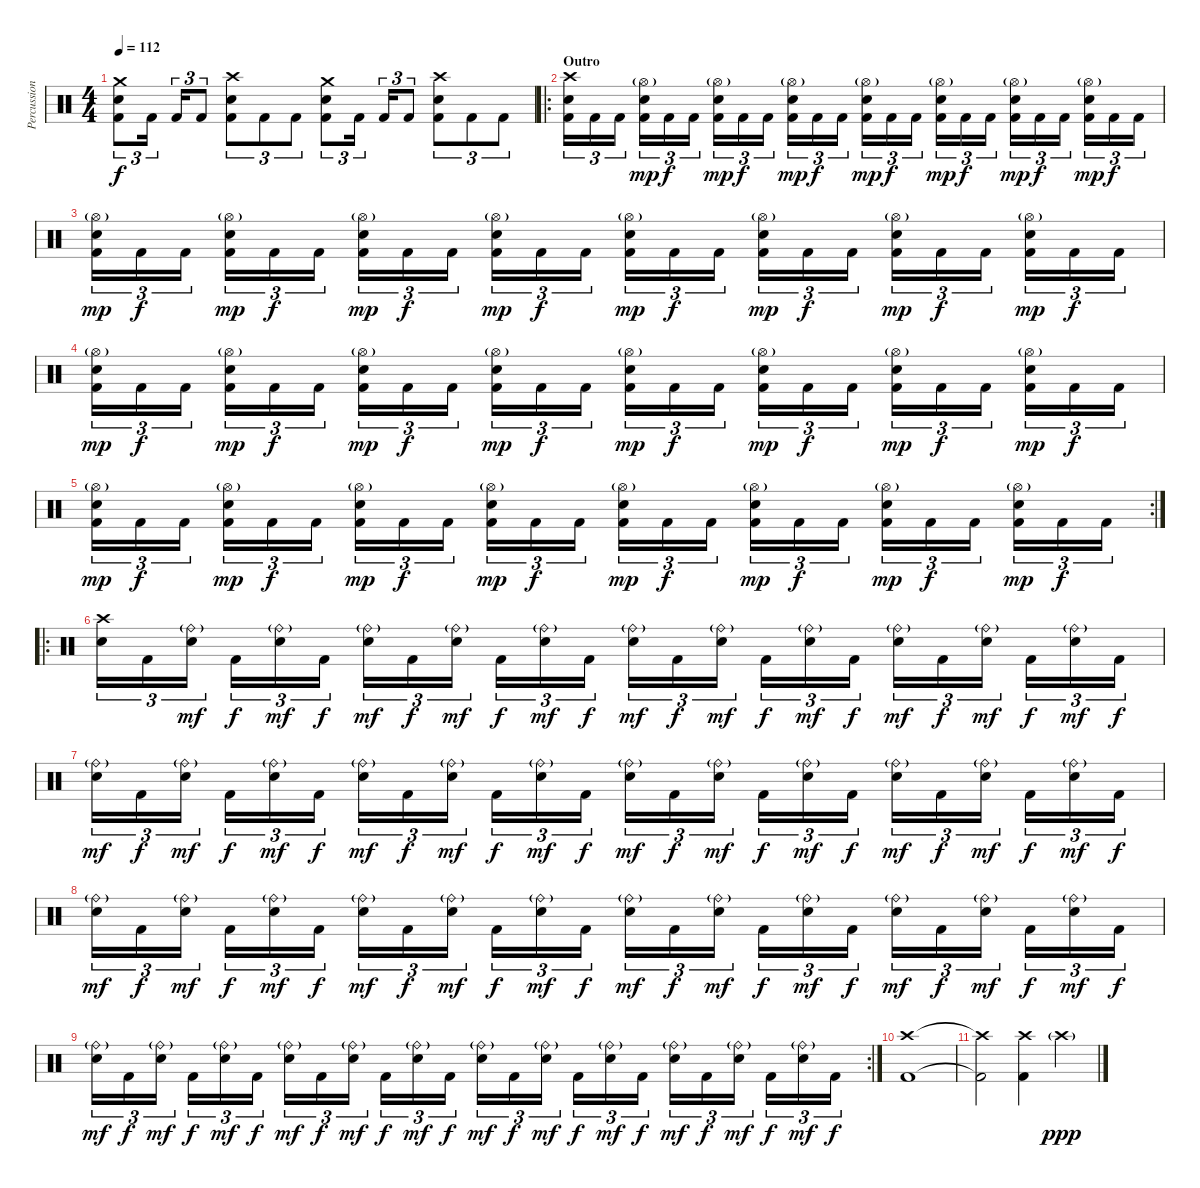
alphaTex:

\track ("Percussion" "Percussion") {instrument percussion}
\staff {score}
\articulation defaults
\ts (4 4)
\tempo 112
\clef neutral
\ks c
("Crash medium (hit)" "Electric Snare (hit)" "Kick (hit) 2").8{tu (3 2) dy f} "Kick (hit) 2".16{tu (3 2)} "Kick (hit) 2".16{tu (3 2)} "Kick (hit) 2".8{tu (3 2)} ("Crash high (hit)" "Electric Snare (hit)" "Kick (hit) 2").8{tu (3 2)} "Kick (hit) 2".8{tu (3 2)} "Kick (hit) 2".8{tu (3 2)} ("Crash medium (hit)" "Electric Snare (hit)" "Kick (hit) 2").8{tu (3 2)} "Kick (hit) 2".16{tu (3 2)} "Kick (hit) 2".16{tu (3 2)} "Kick (hit) 2".8{tu (3 2)} ("Crash high (hit)" "Electric Snare (hit)" "Kick (hit) 2").8{tu (3 2)} "Kick (hit) 2".8{tu (3 2)} "Kick (hit) 2".8{tu (3 2)} |
\ro
\section ("" "Outro")
("Crash high (hit)" "Electric Snare (hit)" "Kick (hit) 2").16{tu (3 2)} "Kick (hit) 2".16{tu (3 2)} "Kick (hit) 2".16{tu (3 2)} ("Hi-Hat (open)"{g} "Electric Snare (hit)" "Kick (hit) 2").16{tu (3 2) dy mp} "Kick (hit) 2".16{tu (3 2) dy f} "Kick (hit) 2".16{tu (3 2)} ("Hi-Hat (open)"{g} "Electric Snare (hit)" "Kick (hit) 2").16{tu (3 2) dy mp} "Kick (hit) 2".16{tu (3 2) dy f} "Kick (hit) 2".16{tu (3 2)} ("Hi-Hat (open)"{g} "Electric Snare (hit)" "Kick (hit) 2").16{tu (3 2) dy mp} "Kick (hit) 2".16{tu (3 2) dy f} "Kick (hit) 2".16{tu (3 2)} ("Hi-Hat (open)"{g} "Electric Snare (hit)" "Kick (hit) 2").16{tu (3 2) dy mp} "Kick (hit) 2".16{tu (3 2) dy f} "Kick (hit) 2".16{tu (3 2)} ("Hi-Hat (open)"{g} "Electric Snare (hit)" "Kick (hit) 2").16{tu (3 2) dy mp} "Kick (hit) 2".16{tu (3 2) dy f} "Kick (hit) 2".16{tu (3 2)} ("Hi-Hat (open)"{g} "Electric Snare (hit)" "Kick (hit) 2").16{tu (3 2) dy mp} "Kick (hit) 2".16{tu (3 2) dy f} "Kick (hit) 2".16{tu (3 2)} ("Hi-Hat (open)"{g} "Electric Snare (hit)" "Kick (hit) 2").16{tu (3 2) dy mp} "Kick (hit) 2".16{tu (3 2) dy f} "Kick (hit) 2".16{tu (3 2)} |
("Hi-Hat (open)"{g} "Electric Snare (hit)" "Kick (hit) 2").16{tu (3 2) dy mp} "Kick (hit) 2".16{tu (3 2) dy f} "Kick (hit) 2".16{tu (3 2)} ("Hi-Hat (open)"{g} "Electric Snare (hit)" "Kick (hit) 2").16{tu (3 2) dy mp} "Kick (hit) 2".16{tu (3 2) dy f} "Kick (hit) 2".16{tu (3 2)} ("Hi-Hat (open)"{g} "Electric Snare (hit)" "Kick (hit) 2").16{tu (3 2) dy mp} "Kick (hit) 2".16{tu (3 2) dy f} "Kick (hit) 2".16{tu (3 2)} ("Hi-Hat (open)"{g} "Electric Snare (hit)" "Kick (hit) 2").16{tu (3 2) dy mp} "Kick (hit) 2".16{tu (3 2) dy f} "Kick (hit) 2".16{tu (3 2)} ("Hi-Hat (open)"{g} "Electric Snare (hit)" "Kick (hit) 2").16{tu (3 2) dy mp} "Kick (hit) 2".16{tu (3 2) dy f} "Kick (hit) 2".16{tu (3 2)} ("Hi-Hat (open)"{g} "Electric Snare (hit)" "Kick (hit) 2").16{tu (3 2) dy mp} "Kick (hit) 2".16{tu (3 2) dy f} "Kick (hit) 2".16{tu (3 2)} ("Hi-Hat (open)"{g} "Electric Snare (hit)" "Kick (hit) 2").16{tu (3 2) dy mp} "Kick (hit) 2".16{tu (3 2) dy f} "Kick (hit) 2".16{tu (3 2)} ("Hi-Hat (open)"{g} "Electric Snare (hit)" "Kick (hit) 2").16{tu (3 2) dy mp} "Kick (hit) 2".16{tu (3 2) dy f} "Kick (hit) 2".16{tu (3 2)} |
("Hi-Hat (open)"{g} "Electric Snare (hit)" "Kick (hit) 2").16{tu (3 2) dy mp} "Kick (hit) 2".16{tu (3 2) dy f} "Kick (hit) 2".16{tu (3 2)} ("Hi-Hat (open)"{g} "Electric Snare (hit)" "Kick (hit) 2").16{tu (3 2) dy mp} "Kick (hit) 2".16{tu (3 2) dy f} "Kick (hit) 2".16{tu (3 2)} ("Hi-Hat (open)"{g} "Electric Snare (hit)" "Kick (hit) 2").16{tu (3 2) dy mp} "Kick (hit) 2".16{tu (3 2) dy f} "Kick (hit) 2".16{tu (3 2)} ("Hi-Hat (open)"{g} "Electric Snare (hit)" "Kick (hit) 2").16{tu (3 2) dy mp} "Kick (hit) 2".16{tu (3 2) dy f} "Kick (hit) 2".16{tu (3 2)} ("Hi-Hat (open)"{g} "Electric Snare (hit)" "Kick (hit) 2").16{tu (3 2) dy mp} "Kick (hit) 2".16{tu (3 2) dy f} "Kick (hit) 2".16{tu (3 2)} ("Hi-Hat (open)"{g} "Electric Snare (hit)" "Kick (hit) 2").16{tu (3 2) dy mp} "Kick (hit) 2".16{tu (3 2) dy f} "Kick (hit) 2".16{tu (3 2)} ("Hi-Hat (open)"{g} "Electric Snare (hit)" "Kick (hit) 2").16{tu (3 2) dy mp} "Kick (hit) 2".16{tu (3 2) dy f} "Kick (hit) 2".16{tu (3 2)} ("Hi-Hat (open)"{g} "Electric Snare (hit)" "Kick (hit) 2").16{tu (3 2) dy mp} "Kick (hit) 2".16{tu (3 2) dy f} "Kick (hit) 2".16{tu (3 2)} |
\rc 2
("Hi-Hat (open)"{g} "Electric Snare (hit)" "Kick (hit) 2").16{tu (3 2) dy mp} "Kick (hit) 2".16{tu (3 2) dy f} "Kick (hit) 2".16{tu (3 2)} ("Hi-Hat (open)"{g} "Electric Snare (hit)" "Kick (hit) 2").16{tu (3 2) dy mp} "Kick (hit) 2".16{tu (3 2) dy f} "Kick (hit) 2".16{tu (3 2)} ("Hi-Hat (open)"{g} "Electric Snare (hit)" "Kick (hit) 2").16{tu (3 2) dy mp} "Kick (hit) 2".16{tu (3 2) dy f} "Kick (hit) 2".16{tu (3 2)} ("Hi-Hat (open)"{g} "Electric Snare (hit)" "Kick (hit) 2").16{tu (3 2) dy mp} "Kick (hit) 2".16{tu (3 2) dy f} "Kick (hit) 2".16{tu (3 2)} ("Hi-Hat (open)"{g} "Electric Snare (hit)" "Kick (hit) 2").16{tu (3 2) dy mp} "Kick (hit) 2".16{tu (3 2) dy f} "Kick (hit) 2".16{tu (3 2)} ("Hi-Hat (open)"{g} "Electric Snare (hit)" "Kick (hit) 2").16{tu (3 2) dy mp} "Kick (hit) 2".16{tu (3 2) dy f} "Kick (hit) 2".16{tu (3 2)} ("Hi-Hat (open)"{g} "Electric Snare (hit)" "Kick (hit) 2").16{tu (3 2) dy mp} "Kick (hit) 2".16{tu (3 2) dy f} "Kick (hit) 2".16{tu (3 2)} ("Hi-Hat (open)"{g} "Electric Snare (hit)" "Kick (hit) 2").16{tu (3 2) dy mp} "Kick (hit) 2".16{tu (3 2) dy f} "Kick (hit) 2".16{tu (3 2)} |
\ro
("Crash high (hit)" "Electric Snare (hit)").16{tu (3 2)} "Kick (hit) 2".16{tu (3 2)} ("Ride (bell)"{g} "Electric Snare (hit)").16{tu (3 2) dy mf} "Kick (hit) 2".16{tu (3 2) dy f} ("Ride (bell)"{g} "Electric Snare (hit)").16{tu (3 2) dy mf} "Kick (hit) 2".16{tu (3 2) dy f} ("Ride (bell)"{g} "Electric Snare (hit)").16{tu (3 2) dy mf} "Kick (hit) 2".16{tu (3 2) dy f} ("Ride (bell)"{g} "Electric Snare (hit)").16{tu (3 2) dy mf} "Kick (hit) 2".16{tu (3 2) dy f} ("Ride (bell)"{g} "Electric Snare (hit)").16{tu (3 2) dy mf} "Kick (hit) 2".16{tu (3 2) dy f} ("Ride (bell)"{g} "Electric Snare (hit)").16{tu (3 2) dy mf} "Kick (hit) 2".16{tu (3 2) dy f} ("Ride (bell)"{g} "Electric Snare (hit)").16{tu (3 2) dy mf} "Kick (hit) 2".16{tu (3 2) dy f} ("Ride (bell)"{g} "Electric Snare (hit)").16{tu (3 2) dy mf} "Kick (hit) 2".16{tu (3 2) dy f} ("Ride (bell)"{g} "Electric Snare (hit)").16{tu (3 2) dy mf} "Kick (hit) 2".16{tu (3 2) dy f} ("Ride (bell)"{g} "Electric Snare (hit)").16{tu (3 2) dy mf} "Kick (hit) 2".16{tu (3 2) dy f} ("Ride (bell)"{g} "Electric Snare (hit)").16{tu (3 2) dy mf} "Kick (hit) 2".16{tu (3 2) dy f} |
("Ride (bell)"{g} "Electric Snare (hit)").16{tu (3 2) dy mf} "Kick (hit) 2".16{tu (3 2) dy f} ("Ride (bell)"{g} "Electric Snare (hit)").16{tu (3 2) dy mf} "Kick (hit) 2".16{tu (3 2) dy f} ("Ride (bell)"{g} "Electric Snare (hit)").16{tu (3 2) dy mf} "Kick (hit) 2".16{tu (3 2) dy f} ("Ride (bell)"{g} "Electric Snare (hit)").16{tu (3 2) dy mf} "Kick (hit) 2".16{tu (3 2) dy f} ("Ride (bell)"{g} "Electric Snare (hit)").16{tu (3 2) dy mf} "Kick (hit) 2".16{tu (3 2) dy f} ("Ride (bell)"{g} "Electric Snare (hit)").16{tu (3 2) dy mf} "Kick (hit) 2".16{tu (3 2) dy f} ("Ride (bell)"{g} "Electric Snare (hit)").16{tu (3 2) dy mf} "Kick (hit) 2".16{tu (3 2) dy f} ("Ride (bell)"{g} "Electric Snare (hit)").16{tu (3 2) dy mf} "Kick (hit) 2".16{tu (3 2) dy f} ("Ride (bell)"{g} "Electric Snare (hit)").16{tu (3 2) dy mf} "Kick (hit) 2".16{tu (3 2) dy f} ("Ride (bell)"{g} "Electric Snare (hit)").16{tu (3 2) dy mf} "Kick (hit) 2".16{tu (3 2) dy f} ("Ride (bell)"{g} "Electric Snare (hit)").16{tu (3 2) dy mf} "Kick (hit) 2".16{tu (3 2) dy f} ("Ride (bell)"{g} "Electric Snare (hit)").16{tu (3 2) dy mf} "Kick (hit) 2".16{tu (3 2) dy f} |
("Ride (bell)"{g} "Electric Snare (hit)").16{tu (3 2) dy mf} "Kick (hit) 2".16{tu (3 2) dy f} ("Ride (bell)"{g} "Electric Snare (hit)").16{tu (3 2) dy mf} "Kick (hit) 2".16{tu (3 2) dy f} ("Ride (bell)"{g} "Electric Snare (hit)").16{tu (3 2) dy mf} "Kick (hit) 2".16{tu (3 2) dy f} ("Ride (bell)"{g} "Electric Snare (hit)").16{tu (3 2) dy mf} "Kick (hit) 2".16{tu (3 2) dy f} ("Ride (bell)"{g} "Electric Snare (hit)").16{tu (3 2) dy mf} "Kick (hit) 2".16{tu (3 2) dy f} ("Ride (bell)"{g} "Electric Snare (hit)").16{tu (3 2) dy mf} "Kick (hit) 2".16{tu (3 2) dy f} ("Ride (bell)"{g} "Electric Snare (hit)").16{tu (3 2) dy mf} "Kick (hit) 2".16{tu (3 2) dy f} ("Ride (bell)"{g} "Electric Snare (hit)").16{tu (3 2) dy mf} "Kick (hit) 2".16{tu (3 2) dy f} ("Ride (bell)"{g} "Electric Snare (hit)").16{tu (3 2) dy mf} "Kick (hit) 2".16{tu (3 2) dy f} ("Ride (bell)"{g} "Electric Snare (hit)").16{tu (3 2) dy mf} "Kick (hit) 2".16{tu (3 2) dy f} ("Ride (bell)"{g} "Electric Snare (hit)").16{tu (3 2) dy mf} "Kick (hit) 2".16{tu (3 2) dy f} ("Ride (bell)"{g} "Electric Snare (hit)").16{tu (3 2) dy mf} "Kick (hit) 2".16{tu (3 2) dy f} |
\rc 2
("Ride (bell)"{g} "Electric Snare (hit)").16{tu (3 2) dy mf} "Kick (hit) 2".16{tu (3 2) dy f} ("Ride (bell)"{g} "Electric Snare (hit)").16{tu (3 2) dy mf} "Kick (hit) 2".16{tu (3 2) dy f} ("Ride (bell)"{g} "Electric Snare (hit)").16{tu (3 2) dy mf} "Kick (hit) 2".16{tu (3 2) dy f} ("Ride (bell)"{g} "Electric Snare (hit)").16{tu (3 2) dy mf} "Kick (hit) 2".16{tu (3 2) dy f} ("Ride (bell)"{g} "Electric Snare (hit)").16{tu (3 2) dy mf} "Kick (hit) 2".16{tu (3 2) dy f} ("Ride (bell)"{g} "Electric Snare (hit)").16{tu (3 2) dy mf} "Kick (hit) 2".16{tu (3 2) dy f} ("Ride (bell)"{g} "Electric Snare (hit)").16{tu (3 2) dy mf} "Kick (hit) 2".16{tu (3 2) dy f} ("Ride (bell)"{g} "Electric Snare (hit)").16{tu (3 2) dy mf} "Kick (hit) 2".16{tu (3 2) dy f} ("Ride (bell)"{g} "Electric Snare (hit)").16{tu (3 2) dy mf} "Kick (hit) 2".16{tu (3 2) dy f} ("Ride (bell)"{g} "Electric Snare (hit)").16{tu (3 2) dy mf} "Kick (hit) 2".16{tu (3 2) dy f} ("Ride (bell)"{g} "Electric Snare (hit)").16{tu (3 2) dy mf} "Kick (hit) 2".16{tu (3 2) dy f} ("Ride (bell)"{g} "Electric Snare (hit)").16{tu (3 2) dy mf} "Kick (hit) 2".16{tu (3 2) dy f} |
("Crash high (hit)" "Kick (hit) 2").1 |
("Crash high (hit)"{t} "Kick (hit) 2"{t}).2 ("Crash high (hit)" "Kick (hit) 2").4 "Crash high (hit)"{g}.4{dy ppp volume 0}
